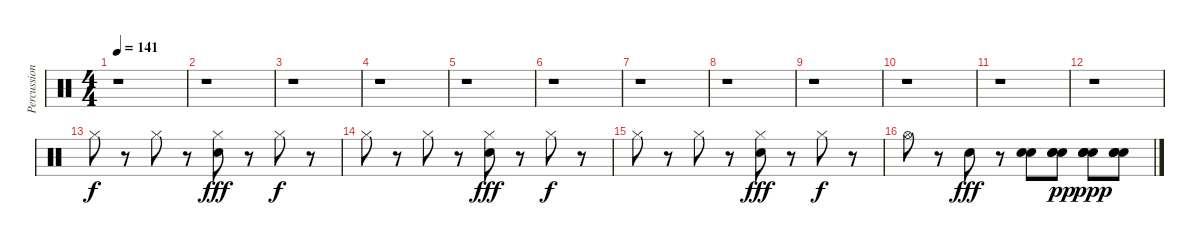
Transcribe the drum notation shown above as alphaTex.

\track ("Percussion" "Percussion") {instrument percussion}
\staff {score}
\articulation defaults
\ts (4 4)
\tempo 141
\clef neutral
\ks c
r.1{dy f} |
r.1 |
r.1 |
r.1 |
r.1 |
r.1 |
r.1 |
r.1 |
r.1 |
r.1 |
r.1 |
r.1 |
"Hi-Hat (closed)".8 r.8 "Hi-Hat (closed)".8 r.8 ("Hi-Hat (closed)" "Snare (hit) 2").8{dy fff} r.8 "Hi-Hat (closed)".8{dy f} r.8 |
"Hi-Hat (closed)".8 r.8 "Hi-Hat (closed)".8 r.8 ("Hi-Hat (closed)" "Snare (hit) 2").8{dy fff} r.8 "Hi-Hat (closed)".8{dy f} r.8 |
"Hi-Hat (closed)".8 r.8 "Hi-Hat (closed)".8 r.8 ("Hi-Hat (closed)" "Snare (hit) 2").8{dy fff} r.8 "Hi-Hat (closed)".8{dy f} r.8 |
"Hi-Hat (open)".8 r.8 "Snare (hit) 2".8{dy fff} r.8 ("Snare (hit) 2" "Snare (hit) 2").8 ("Snare (hit) 2" "Snare (hit) 2" "Snare (hit) 2").8{dy pp} ("Snare (hit) 2" "Snare (hit) 2" "Snare (hit) 2" "Snare (hit) 2").8{dy ppp} ("Snare (hit) 2" "Snare (hit) 2" "Snare (hit) 2" "Snare (hit) 2").8
